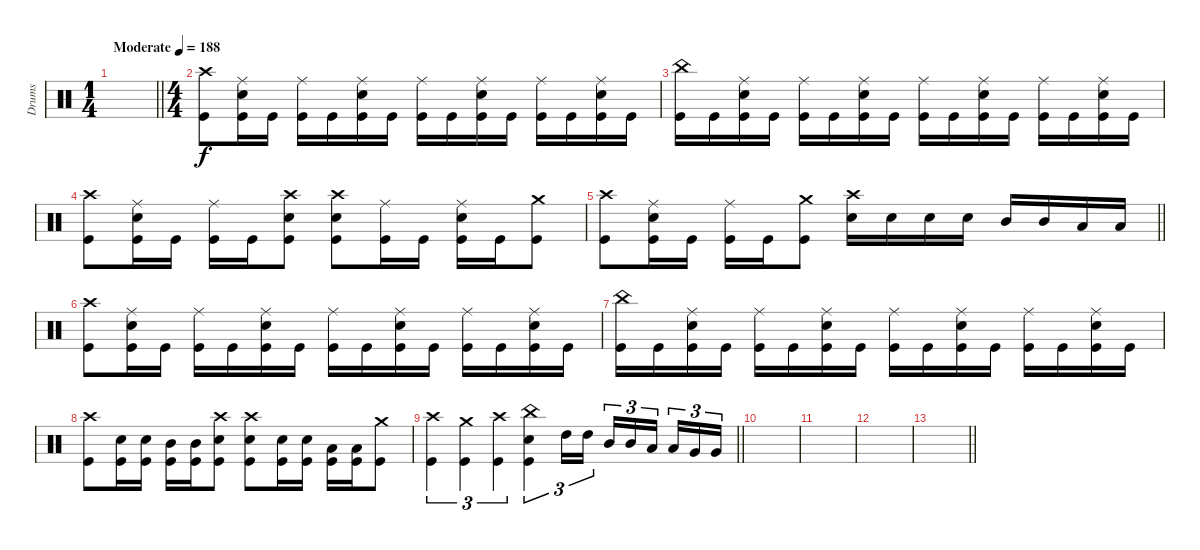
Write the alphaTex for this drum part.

\track ("Drums" "Drums") {instrument percussion}
\staff
\articulation defaults
\ts (1 4)
\tempo (188 "Moderate")
\clef neutral
\barLineRight lightlight
\ks c
|
\ts (4 4)
("Crash high (hit)" "Kick (hit)").8 ("Ride (middle)" "Electric Snare (hit)" "Kick (hit)").16 "Kick (hit)".16 ("Ride (middle)" "Kick (hit)").16 "Kick (hit)".16 ("Ride (middle)" "Electric Snare (hit)" "Kick (hit)").16 "Kick (hit)".16 ("Ride (middle)" "Kick (hit)").16 "Kick (hit)".16 ("Ride (middle)" "Electric Snare (hit)" "Kick (hit)").16 "Kick (hit)".16 ("Ride (middle)" "Kick (hit)").16 "Kick (hit)".16 ("Ride (middle)" "Electric Snare (hit)" "Kick (hit)").16 "Kick (hit)".16 |
("China (hit)" "Kick (hit)").16 "Kick (hit)".16 ("Ride (middle)" "Electric Snare (hit)" "Kick (hit)").16 "Kick (hit)".16 ("Ride (middle)" "Kick (hit)").16 "Kick (hit)".16 ("Ride (middle)" "Electric Snare (hit)" "Kick (hit)").16 "Kick (hit)".16 ("Ride (middle)" "Kick (hit)").16 "Kick (hit)".16 ("Ride (middle)" "Electric Snare (hit)" "Kick (hit)").16 "Kick (hit)".16 ("Ride (middle)" "Kick (hit)").16 "Kick (hit)".16 ("Ride (middle)" "Electric Snare (hit)" "Kick (hit)").16 "Kick (hit)".16 |
("Crash high (hit)" "Kick (hit)").8 ("Ride (middle)" "Electric Snare (hit)" "Kick (hit)").16 "Kick (hit)".16 ("Ride (middle)" "Kick (hit)").16 "Kick (hit)".16 ("Crash high (hit)" "Electric Snare (hit)" "Kick (hit)").8 ("Crash high (hit)" "Electric Snare (hit)" "Kick (hit)").8 ("Ride (middle)" "Kick (hit)").16 "Kick (hit)".16 ("Ride (middle)" "Electric Snare (hit)" "Kick (hit)").16 "Kick (hit)".16 ("Crash medium (hit)" "Kick (hit)").8 |
\barLineRight lightlight
("Crash high (hit)" "Kick (hit)").8 ("Ride (middle)" "Electric Snare (hit)" "Kick (hit)").16 "Kick (hit)".16 ("Ride (middle)" "Kick (hit)").16 "Kick (hit)".16 ("Crash medium (hit)" "Kick (hit)").8 ("Crash high (hit)" "Electric Snare (hit)").16 "Electric Snare (hit)".16 "Electric Snare (hit)".16 "Electric Snare (hit)".16 "Mid Tom (hit)".16 "Mid Tom (hit)".16 "Low Tom (hit)".16 "Low Tom (hit)".16 |
("Crash high (hit)" "Kick (hit)").8 ("Ride (middle)" "Electric Snare (hit)" "Kick (hit)").16 "Kick (hit)".16 ("Ride (middle)" "Kick (hit)").16 "Kick (hit)".16 ("Ride (middle)" "Electric Snare (hit)" "Kick (hit)").16 "Kick (hit)".16 ("Ride (middle)" "Kick (hit)").16 "Kick (hit)".16 ("Ride (middle)" "Electric Snare (hit)" "Kick (hit)").16 "Kick (hit)".16 ("Ride (middle)" "Kick (hit)").16 "Kick (hit)".16 ("Ride (middle)" "Electric Snare (hit)" "Kick (hit)").16 "Kick (hit)".16 |
("China (hit)" "Kick (hit)").16 "Kick (hit)".16 ("Ride (middle)" "Electric Snare (hit)" "Kick (hit)").16 "Kick (hit)".16 ("Ride (middle)" "Kick (hit)").16 "Kick (hit)".16 ("Ride (middle)" "Electric Snare (hit)" "Kick (hit)").16 "Kick (hit)".16 ("Ride (middle)" "Kick (hit)").16 "Kick (hit)".16 ("Ride (middle)" "Electric Snare (hit)" "Kick (hit)").16 "Kick (hit)".16 ("Ride (middle)" "Kick (hit)").16 "Kick (hit)".16 ("Ride (middle)" "Electric Snare (hit)" "Kick (hit)").16 "Kick (hit)".16 |
("Crash high (hit)" "Kick (hit)").8 ("Electric Snare (hit)" "Kick (hit)").16 ("Electric Snare (hit)" "Kick (hit)").16 ("Mid Tom (hit)" "Kick (hit)").16 ("Mid Tom (hit)" "Kick (hit)").16 ("Crash high (hit)" "Electric Snare (hit)" "Kick (hit)").8 ("Crash high (hit)" "Electric Snare (hit)" "Kick (hit)").8 ("Electric Snare (hit)" "Kick (hit)").16 ("Electric Snare (hit)" "Kick (hit)").16 ("Low Tom (hit)" "Kick (hit)").16 ("Low Tom (hit)" "Kick (hit)").16 ("Crash medium (hit)" "Kick (hit)").8 |
\barLineRight lightlight
("Crash high (hit)" "Kick (hit)").4{tu (3 2)} ("Crash medium (hit)" "Kick (hit)").4{tu (3 2)} ("Crash high (hit)" "Kick (hit)").4{tu (3 2)} ("China (hit)" "Electric Snare (hit)" "Kick (hit)").4{tu (3 2)} "High Tom (hit)".16{tu (3 2)} "High Tom (hit)".16{tu (3 2)} "Mid Tom (hit)".16{tu (3 2)} "Mid Tom (hit)".16{tu (3 2)} "Low Tom (hit)".16{tu (3 2) beam splitsecondary} "Low Tom (hit)".16{tu (3 2)} "Very Low Tom (hit)".16{tu (3 2)} "Very Low Tom (hit)".16{tu (3 2)} |
|
|
|
\barLineRight lightlight
